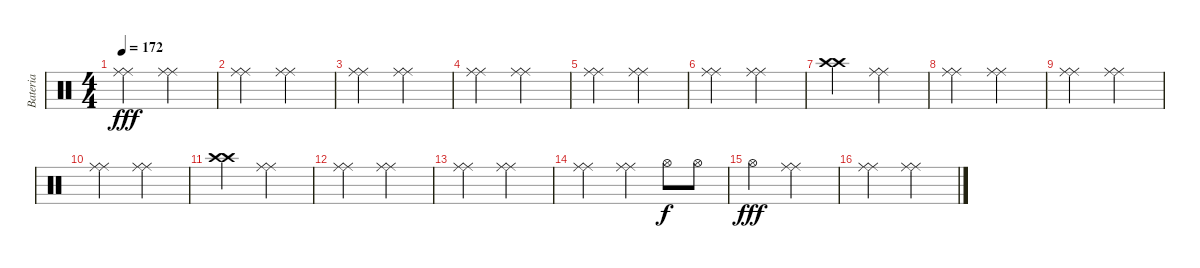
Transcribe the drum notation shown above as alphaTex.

\track ("Bateria" "Bateria") {instrument percussion}
\staff {score}
\articulation defaults
\ts (4 4)
\tempo 172
\tempo 270
\tempo 172
\clef neutral
\ks c
("Ride (middle)" "Ride (middle)").2{dy fff} ("Ride (middle)" "Ride (middle)").2 |
("Ride (middle)" "Ride (middle)").2 ("Ride (middle)" "Ride (middle)").2 |
("Ride (middle)" "Ride (middle)").2 ("Ride (middle)" "Ride (middle)").2 |
("Ride (middle)" "Ride (middle)").2 ("Ride (middle)" "Ride (middle)").2 |
("Ride (middle)" "Ride (middle)").2 ("Ride (middle)" "Ride (middle)").2 |
("Ride (middle)" "Ride (middle)").2 ("Ride (middle)" "Ride (middle)").2 |
("Crash high (hit)" "Crash high (hit)").2 ("Ride (middle)" "Ride (middle)").2 |
("Ride (middle)" "Ride (middle)").2 ("Ride (middle)" "Ride (middle)").2 |
("Ride (middle)" "Ride (middle)").2 ("Ride (middle)" "Ride (middle)").2 |
("Ride (middle)" "Ride (middle)").2 ("Ride (middle)" "Ride (middle)").2 |
("Crash high (hit)" "Crash high (hit)").2 ("Ride (middle)" "Ride (middle)").2 |
("Ride (middle)" "Ride (middle)").2 ("Ride (middle)" "Ride (middle)").2 |
("Ride (middle)" "Ride (middle)").2 ("Ride (middle)" "Ride (middle)").2 |
("Ride (middle)" "Ride (middle)").2 ("Ride (middle)" "Ride (middle)").4 "Hi-Hat (open)".8{dy f} "Hi-Hat (open)".8 |
"Hi-Hat (open)".2{dy fff} ("Ride (middle)" "Ride (middle)").2 |
("Ride (middle)" "Ride (middle)").2 ("Ride (middle)" "Ride (middle)").2
